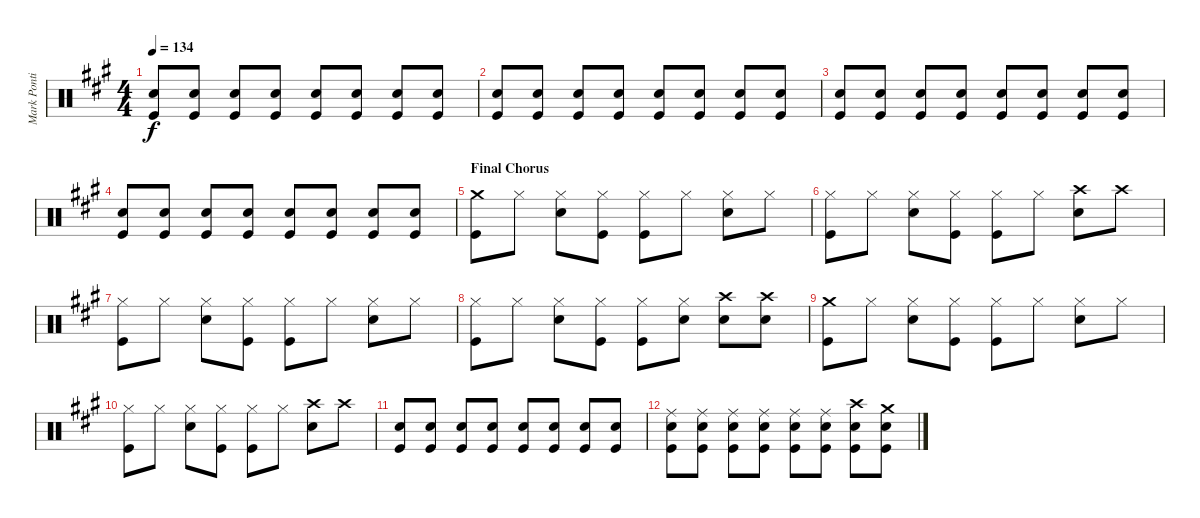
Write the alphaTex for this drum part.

\track ("Mark Pontius" "Mark Ponti") {instrument percussion}
\staff {score}
\articulation defaults
\ts (4 4)
\tempo 134
\clef neutral
\ks a
("Kick (hit)" "Snare (hit) 2").8{dy f} ("Snare (hit) 2" "Kick (hit)").8 ("Snare (hit) 2" "Kick (hit)").8 ("Kick (hit)" "Snare (hit) 2").8 ("Kick (hit)" "Snare (hit) 2").8 ("Snare (hit) 2" "Kick (hit)").8 ("Snare (hit) 2" "Kick (hit)").8 ("Kick (hit)" "Snare (hit) 2").8 |
("Kick (hit)" "Snare (hit) 2").8 ("Snare (hit) 2" "Kick (hit)").8 ("Snare (hit) 2" "Kick (hit)").8 ("Kick (hit)" "Snare (hit) 2").8 ("Kick (hit)" "Snare (hit) 2").8 ("Snare (hit) 2" "Kick (hit)").8 ("Snare (hit) 2" "Kick (hit)").8 ("Kick (hit)" "Snare (hit) 2").8 |
("Kick (hit)" "Snare (hit) 2").8 ("Snare (hit) 2" "Kick (hit)").8 ("Snare (hit) 2" "Kick (hit)").8 ("Kick (hit)" "Snare (hit) 2").8 ("Kick (hit)" "Snare (hit) 2").8 ("Snare (hit) 2" "Kick (hit)").8 ("Snare (hit) 2" "Kick (hit)").8 ("Kick (hit)" "Snare (hit) 2").8 |
("Kick (hit)" "Snare (hit) 2").8 ("Snare (hit) 2" "Kick (hit)").8 ("Snare (hit) 2" "Kick (hit)").8 ("Kick (hit)" "Snare (hit) 2").8 ("Kick (hit)" "Snare (hit) 2").8 ("Snare (hit) 2" "Kick (hit)").8 ("Snare (hit) 2" "Kick (hit)").8 ("Kick (hit)" "Snare (hit) 2").8 |
\section ("" "Final Chorus")
("Crash medium (hit)" "Kick (hit)").8 "Hi-Hat (closed)".8 ("Hi-Hat (closed)" "Snare (hit) 2").8 ("Hi-Hat (closed)" "Kick (hit)").8 ("Hi-Hat (closed)" "Kick (hit)").8 "Hi-Hat (closed)".8 ("Hi-Hat (closed)" "Snare (hit) 2").8 "Hi-Hat (closed)".8 |
("Hi-Hat (closed)" "Kick (hit)").8 "Hi-Hat (closed)".8 ("Hi-Hat (closed)" "Snare (hit) 2").8 ("Hi-Hat (closed)" "Kick (hit)").8 ("Hi-Hat (closed)" "Kick (hit)").8 "Hi-Hat (closed)".8 ("Snare (hit) 2" "Crash high (hit)").8 "Crash high (hit)".8 |
("Hi-Hat (closed)" "Kick (hit)").8 "Hi-Hat (closed)".8 ("Hi-Hat (closed)" "Snare (hit) 2").8 ("Hi-Hat (closed)" "Kick (hit)").8 ("Hi-Hat (closed)" "Kick (hit)").8 "Hi-Hat (closed)".8 ("Hi-Hat (closed)" "Snare (hit) 2").8 "Hi-Hat (closed)".8 |
("Hi-Hat (closed)" "Kick (hit)").8 "Hi-Hat (closed)".8 ("Hi-Hat (closed)" "Snare (hit) 2").8 ("Hi-Hat (closed)" "Kick (hit)").8 ("Hi-Hat (closed)" "Kick (hit)").8 ("Hi-Hat (closed)" "Snare (hit) 2").8 ("Snare (hit) 2" "Crash high (hit)").8 ("Snare (hit) 2" "Crash high (hit)").8 |
("Crash medium (hit)" "Kick (hit)").8 "Hi-Hat (closed)".8 ("Hi-Hat (closed)" "Snare (hit) 2").8 ("Hi-Hat (closed)" "Kick (hit)").8 ("Hi-Hat (closed)" "Kick (hit)").8 "Hi-Hat (closed)".8 ("Hi-Hat (closed)" "Snare (hit) 2").8 "Hi-Hat (closed)".8 |
("Hi-Hat (closed)" "Kick (hit)").8 "Hi-Hat (closed)".8 ("Hi-Hat (closed)" "Snare (hit) 2").8 ("Hi-Hat (closed)" "Kick (hit)").8 ("Hi-Hat (closed)" "Kick (hit)").8 "Hi-Hat (closed)".8 ("Snare (hit) 2" "Crash high (hit)").8 "Crash high (hit)".8 |
("Kick (hit)" "Snare (hit) 2").8 ("Snare (hit) 2" "Kick (hit)").8 ("Snare (hit) 2" "Kick (hit)").8 ("Kick (hit)" "Snare (hit) 2").8 ("Kick (hit)" "Snare (hit) 2").8 ("Snare (hit) 2" "Kick (hit)").8 ("Snare (hit) 2" "Kick (hit)").8 ("Kick (hit)" "Snare (hit) 2").8 |
("Kick (hit)" "Snare (hit) 2" "Ride (middle)").8 ("Snare (hit) 2" "Kick (hit)" "Ride (middle)").8 ("Snare (hit) 2" "Kick (hit)" "Ride (middle)").8 ("Kick (hit)" "Snare (hit) 2" "Ride (middle)").8 ("Kick (hit)" "Snare (hit) 2" "Ride (middle)").8 ("Snare (hit) 2" "Kick (hit)" "Ride (middle)").8 ("Snare (hit) 2" "Kick (hit)" "Crash high (hit)").8 ("Kick (hit)" "Snare (hit) 2" "Crash medium (hit)").8
